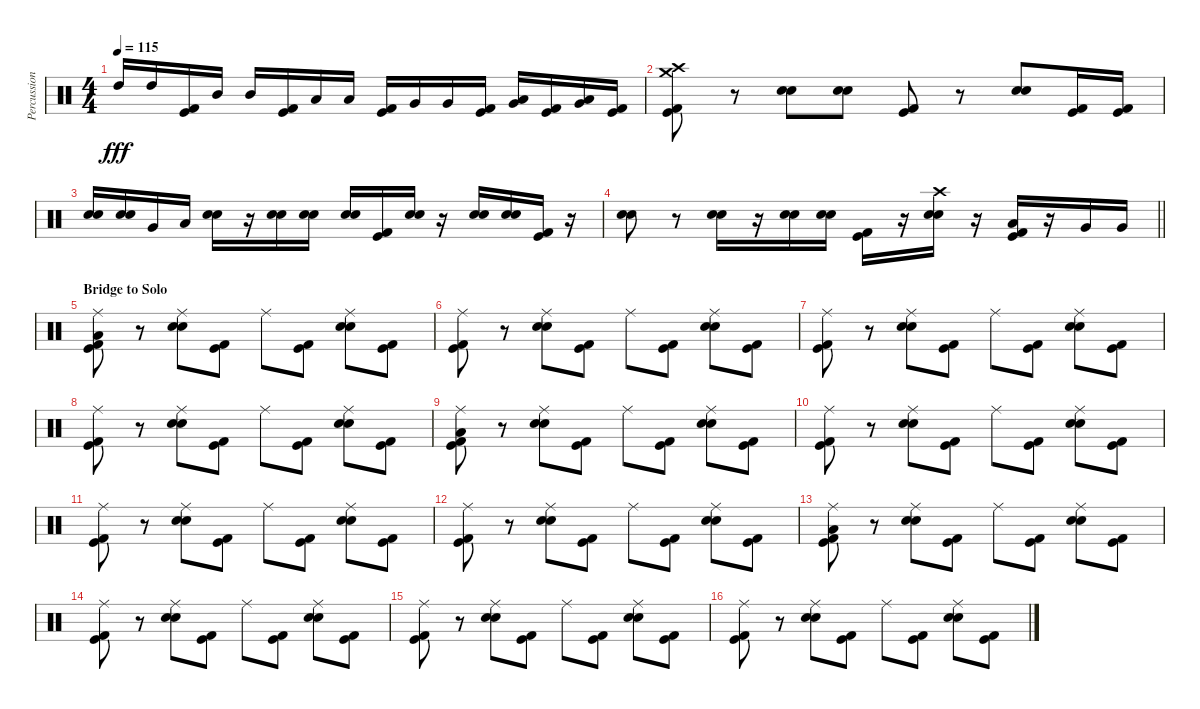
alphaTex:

\track ("Percussion" "Percussion") {instrument percussion}
\staff {score}
\articulation defaults
\ts (4 4)
\tempo 115
\clef neutral
\ks c "High Tom (hit)".16{dy fff} "High Tom (hit)".16
("Kick (hit) 2" "Kick (hit)").16 "Mid Tom (hit)".16 "Mid Tom (hit)".16 ("Kick (hit) 2" "Kick (hit)").16 "Low Tom (hit)".16 "Low Tom (hit)".16 ("Kick (hit) 2" "Kick (hit)").16 "Very Low Tom (hit)".16 "Very Low Tom (hit)".16 ("Kick (hit) 2" "Kick (hit)").16 ("Very Low Tom (hit)" "Low Floor Tom (hit)").16 ("Kick (hit) 2" "Kick (hit)").16 ("Very Low Tom (hit)" "Low Floor Tom (hit)").16 ("Kick (hit) 2" "Kick (hit)").16 |
("Crash high (hit)" "Crash medium (hit)" "Kick (hit) 2" "Kick (hit)").8 r.8 ("Electric Snare (hit)" "Snare (hit) 2").8 ("Electric Snare (hit)" "Snare (hit) 2").8 ("Kick (hit) 2" "Kick (hit)").8 r.8 ("Electric Snare (hit)" "Snare (hit) 2").8 ("Kick (hit) 2" "Kick (hit)").16 ("Kick (hit) 2" "Kick (hit)").16 |
("Electric Snare (hit)" "Snare (hit) 2").16 ("Electric Snare (hit)" "Snare (hit) 2").16 "Very Low Tom (hit)".16 "Low Floor Tom (hit)".16 ("Electric Snare (hit)" "Snare (hit) 2").16 r.16 ("Electric Snare (hit)" "Snare (hit) 2").16 ("Electric Snare (hit)" "Snare (hit) 2").16 ("Electric Snare (hit)" "Snare (hit) 2").16 ("Kick (hit) 2" "Kick (hit)").16 ("Electric Snare (hit)" "Snare (hit) 2").16 r.16 ("Electric Snare (hit)" "Snare (hit) 2").16 ("Electric Snare (hit)" "Snare (hit) 2").16 ("Kick (hit) 2" "Kick (hit)").16 r.16 |
\barLineRight lightlight
("Electric Snare (hit)" "Snare (hit) 2").8 r.8 ("Electric Snare (hit)" "Snare (hit) 2").16 r.16 ("Electric Snare (hit)" "Snare (hit) 2").16 ("Electric Snare (hit)" "Snare (hit) 2").16 ("Kick (hit) 2" "Kick (hit)").16 r.16 ("Crash high (hit)" "Electric Snare (hit)" "Snare (hit) 2").16 r.16 ("Low Tom (hit)" "Kick (hit) 2" "Kick (hit)").16 r.16 "Very Low Tom (hit)".16 "Very Low Tom (hit)".16 |
\section ("" "Bridge to Solo")
("Ride (middle)" "Low Floor Tom (hit)" "Kick (hit) 2" "Kick (hit)").8 r.8 ("Ride (middle)" "Electric Snare (hit)" "Snare (hit) 2").8 ("Kick (hit) 2" "Kick (hit)").8 "Ride (middle)".8 ("Kick (hit) 2" "Kick (hit)").8 ("Ride (middle)" "Electric Snare (hit)" "Snare (hit) 2").8 ("Kick (hit) 2" "Kick (hit)").8 |
("Ride (middle)" "Kick (hit) 2" "Kick (hit)").8 r.8 ("Ride (middle)" "Electric Snare (hit)" "Snare (hit) 2").8 ("Kick (hit) 2" "Kick (hit)").8 "Ride (middle)".8 ("Kick (hit) 2" "Kick (hit)").8 ("Ride (middle)" "Electric Snare (hit)" "Snare (hit) 2").8 ("Kick (hit) 2" "Kick (hit)").8 |
("Ride (middle)" "Kick (hit) 2" "Kick (hit)").8 r.8 ("Ride (middle)" "Electric Snare (hit)" "Snare (hit) 2").8 ("Kick (hit) 2" "Kick (hit)").8 "Ride (middle)".8 ("Kick (hit) 2" "Kick (hit)").8 ("Ride (middle)" "Electric Snare (hit)" "Snare (hit) 2").8 ("Kick (hit) 2" "Kick (hit)").8 |
("Ride (middle)" "Kick (hit) 2" "Kick (hit)").8 r.8 ("Ride (middle)" "Electric Snare (hit)" "Snare (hit) 2").8 ("Kick (hit) 2" "Kick (hit)").8 "Ride (middle)".8 ("Kick (hit) 2" "Kick (hit)").8 ("Ride (middle)" "Electric Snare (hit)" "Snare (hit) 2").8 ("Kick (hit) 2" "Kick (hit)").8 |
("Ride (middle)" "Low Floor Tom (hit)" "Kick (hit) 2" "Kick (hit)").8 r.8 ("Ride (middle)" "Electric Snare (hit)" "Snare (hit) 2").8 ("Kick (hit) 2" "Kick (hit)").8 "Ride (middle)".8 ("Kick (hit) 2" "Kick (hit)").8 ("Ride (middle)" "Electric Snare (hit)" "Snare (hit) 2").8 ("Kick (hit) 2" "Kick (hit)").8 |
("Ride (middle)" "Kick (hit) 2" "Kick (hit)").8 r.8 ("Ride (middle)" "Electric Snare (hit)" "Snare (hit) 2").8 ("Kick (hit) 2" "Kick (hit)").8 "Ride (middle)".8 ("Kick (hit) 2" "Kick (hit)").8 ("Ride (middle)" "Electric Snare (hit)" "Snare (hit) 2").8 ("Kick (hit) 2" "Kick (hit)").8 |
("Ride (middle)" "Kick (hit) 2" "Kick (hit)").8 r.8 ("Ride (middle)" "Electric Snare (hit)" "Snare (hit) 2").8 ("Kick (hit) 2" "Kick (hit)").8 "Ride (middle)".8 ("Kick (hit) 2" "Kick (hit)").8 ("Ride (middle)" "Electric Snare (hit)" "Snare (hit) 2").8 ("Kick (hit) 2" "Kick (hit)").8 |
("Ride (middle)" "Kick (hit) 2" "Kick (hit)").8 r.8 ("Ride (middle)" "Electric Snare (hit)" "Snare (hit) 2").8 ("Kick (hit) 2" "Kick (hit)").8 "Ride (middle)".8 ("Kick (hit) 2" "Kick (hit)").8 ("Ride (middle)" "Electric Snare (hit)" "Snare (hit) 2").8 ("Kick (hit) 2" "Kick (hit)").8 |
("Ride (middle)" "Low Floor Tom (hit)" "Kick (hit) 2" "Kick (hit)").8 r.8 ("Ride (middle)" "Electric Snare (hit)" "Snare (hit) 2").8 ("Kick (hit) 2" "Kick (hit)").8 "Ride (middle)".8 ("Kick (hit) 2" "Kick (hit)").8 ("Ride (middle)" "Electric Snare (hit)" "Snare (hit) 2").8 ("Kick (hit) 2" "Kick (hit)").8 |
("Ride (middle)" "Kick (hit) 2" "Kick (hit)").8 r.8 ("Ride (middle)" "Electric Snare (hit)" "Snare (hit) 2").8 ("Kick (hit) 2" "Kick (hit)").8 "Ride (middle)".8 ("Kick (hit) 2" "Kick (hit)").8 ("Ride (middle)" "Electric Snare (hit)" "Snare (hit) 2").8 ("Kick (hit) 2" "Kick (hit)").8 |
("Ride (middle)" "Kick (hit) 2" "Kick (hit)").8 r.8 ("Ride (middle)" "Electric Snare (hit)" "Snare (hit) 2").8 ("Kick (hit) 2" "Kick (hit)").8 "Ride (middle)".8 ("Kick (hit) 2" "Kick (hit)").8 ("Ride (middle)" "Electric Snare (hit)" "Snare (hit) 2").8 ("Kick (hit) 2" "Kick (hit)").8 |
("Ride (middle)" "Kick (hit) 2" "Kick (hit)").8 r.8 ("Ride (middle)" "Electric Snare (hit)" "Snare (hit) 2").8 ("Kick (hit) 2" "Kick (hit)").8 "Ride (middle)".8 ("Kick (hit) 2" "Kick (hit)").8 ("Ride (middle)" "Electric Snare (hit)" "Snare (hit) 2").8 ("Kick (hit) 2" "Kick (hit)").8
